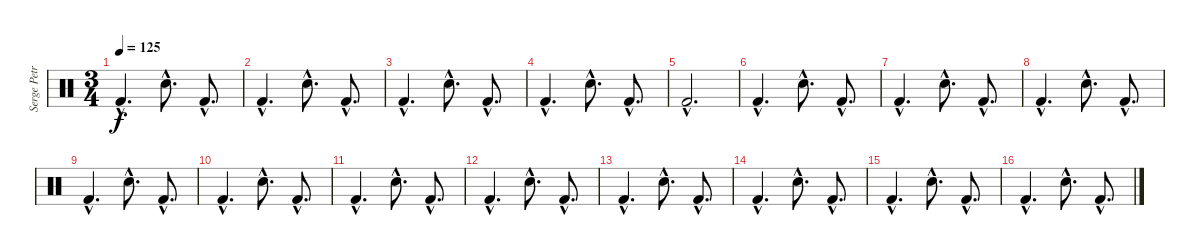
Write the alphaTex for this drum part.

\track ("Serge Petrone" "Serge Petr") {instrument percussion}
\staff {score}
\articulation defaults
\ts (3 4)
\tempo 125
\clef neutral
\ks c "Kick (hit) 2"{hac}.4{d dy f} "Snare (hit) 2"{hac}.8{d} "Kick (hit) 2"{hac}.8{d}
|
"Kick (hit) 2"{hac}.4{d} "Snare (hit) 2"{hac}.8{d} "Kick (hit) 2"{hac}.8{d} |
"Kick (hit) 2"{hac}.4{d} "Snare (hit) 2"{hac}.8{d} "Kick (hit) 2"{hac}.8{d} |
"Kick (hit) 2"{hac}.4{d} "Snare (hit) 2"{hac}.8{d} "Kick (hit) 2"{hac}.8{d} |
"Kick (hit) 2"{hac}.2{d} |
"Kick (hit) 2"{hac}.4{d} "Snare (hit) 2"{hac}.8{d} "Kick (hit) 2"{hac}.8{d} |
"Kick (hit) 2"{hac}.4{d} "Snare (hit) 2"{hac}.8{d} "Kick (hit) 2"{hac}.8{d} |
"Kick (hit) 2"{hac}.4{d} "Snare (hit) 2"{hac}.8{d} "Kick (hit) 2"{hac}.8{d} |
"Kick (hit) 2"{hac}.4{d} "Snare (hit) 2"{hac}.8{d} "Kick (hit) 2"{hac}.8{d} |
"Kick (hit) 2"{hac}.4{d} "Snare (hit) 2"{hac}.8{d} "Kick (hit) 2"{hac}.8{d} |
"Kick (hit) 2"{hac}.4{d} "Snare (hit) 2"{hac}.8{d} "Kick (hit) 2"{hac}.8{d} |
"Kick (hit) 2"{hac}.4{d} "Snare (hit) 2"{hac}.8{d} "Kick (hit) 2"{hac}.8{d} |
"Kick (hit) 2"{hac}.4{d} "Snare (hit) 2"{hac}.8{d} "Kick (hit) 2"{hac}.8{d} |
"Kick (hit) 2"{hac}.4{d} "Snare (hit) 2"{hac}.8{d} "Kick (hit) 2"{hac}.8{d} |
"Kick (hit) 2"{hac}.4{d} "Snare (hit) 2"{hac}.8{d} "Kick (hit) 2"{hac}.8{d} |
"Kick (hit) 2"{hac}.4{d} "Snare (hit) 2"{hac}.8{d} "Kick (hit) 2"{hac}.8{d}
